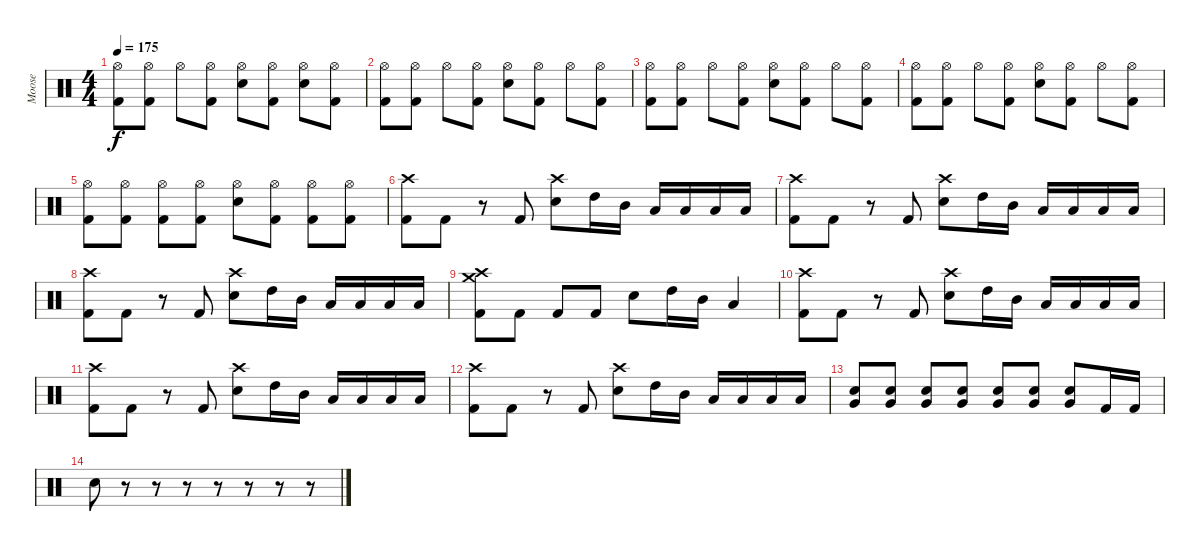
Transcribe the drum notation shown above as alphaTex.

\track ("Moose" "Moose") {instrument percussion}
\staff {score}
\articulation defaults
\ts (4 4)
\tempo 175
\clef neutral
\ks c
("Hi-Hat (open)" "Kick (hit) 2").8{dy f} ("Hi-Hat (open)" "Kick (hit) 2").8 "Hi-Hat (open)".8 ("Hi-Hat (open)" "Kick (hit) 2").8 ("Hi-Hat (open)" "Electric Snare (hit)").8 ("Hi-Hat (open)" "Kick (hit) 2").8 ("Hi-Hat (open)" "Electric Snare (hit)").8 ("Hi-Hat (open)" "Kick (hit) 2").8 |
("Hi-Hat (open)" "Kick (hit) 2").8 ("Hi-Hat (open)" "Kick (hit) 2").8 "Hi-Hat (open)".8 ("Hi-Hat (open)" "Kick (hit) 2").8 ("Hi-Hat (open)" "Electric Snare (hit)").8 ("Hi-Hat (open)" "Kick (hit) 2").8 "Hi-Hat (open)".8 ("Hi-Hat (open)" "Kick (hit) 2").8 |
("Hi-Hat (open)" "Kick (hit) 2").8 ("Hi-Hat (open)" "Kick (hit) 2").8 "Hi-Hat (open)".8 ("Hi-Hat (open)" "Kick (hit) 2").8 ("Hi-Hat (open)" "Electric Snare (hit)").8 ("Hi-Hat (open)" "Kick (hit) 2").8 "Hi-Hat (open)".8 ("Hi-Hat (open)" "Kick (hit) 2").8 |
("Hi-Hat (open)" "Kick (hit) 2").8 ("Hi-Hat (open)" "Kick (hit) 2").8 "Hi-Hat (open)".8 ("Hi-Hat (open)" "Kick (hit) 2").8 ("Hi-Hat (open)" "Electric Snare (hit)").8 ("Hi-Hat (open)" "Kick (hit) 2").8 "Hi-Hat (open)".8 ("Hi-Hat (open)" "Kick (hit) 2").8 |
("Hi-Hat (open)" "Kick (hit) 2").8 ("Hi-Hat (open)" "Kick (hit) 2").8 ("Hi-Hat (open)" "Kick (hit) 2").8 ("Hi-Hat (open)" "Kick (hit) 2").8 ("Hi-Hat (open)" "Electric Snare (hit)").8 ("Hi-Hat (open)" "Kick (hit) 2").8 ("Hi-Hat (open)" "Kick (hit) 2").8 ("Hi-Hat (open)" "Kick (hit) 2").8 |
("Crash high (hit)" "Kick (hit) 2").8 "Kick (hit) 2".8 r.8 "Kick (hit) 2".8 ("Crash high (hit)" "Electric Snare (hit)").8 "High Tom (hit)".16 "Mid Tom (hit)".16 "Low Tom (hit)".16 "Low Tom (hit)".16 "Low Tom (hit)".16 "Low Tom (hit)".16 |
("Crash high (hit)" "Kick (hit) 2").8 "Kick (hit) 2".8 r.8 "Kick (hit) 2".8 ("Crash high (hit)" "Electric Snare (hit)").8 "High Tom (hit)".16 "Mid Tom (hit)".16 "Low Tom (hit)".16 "Low Tom (hit)".16 "Low Tom (hit)".16 "Low Tom (hit)".16 |
("Crash high (hit)" "Kick (hit) 2").8 "Kick (hit) 2".8 r.8 "Kick (hit) 2".8 ("Crash high (hit)" "Electric Snare (hit)").8 "High Tom (hit)".16 "Mid Tom (hit)".16 "Low Tom (hit)".16 "Low Tom (hit)".16 "Low Tom (hit)".16 "Low Tom (hit)".16 |
("Crash high (hit)" "Crash medium (hit)" "Kick (hit) 2").8 "Kick (hit) 2".8 "Kick (hit) 2".8 "Kick (hit) 2".8 "Electric Snare (hit)".8 "High Tom (hit)".16 "Mid Tom (hit)".16 "Low Tom (hit)".4 |
("Crash high (hit)" "Kick (hit) 2").8 "Kick (hit) 2".8 r.8 "Kick (hit) 2".8 ("Crash high (hit)" "Electric Snare (hit)").8 "High Tom (hit)".16 "Mid Tom (hit)".16 "Low Tom (hit)".16 "Low Tom (hit)".16 "Low Tom (hit)".16 "Low Tom (hit)".16 |
("Crash high (hit)" "Kick (hit) 2").8 "Kick (hit) 2".8 r.8 "Kick (hit) 2".8 ("Crash high (hit)" "Electric Snare (hit)").8 "High Tom (hit)".16 "Mid Tom (hit)".16 "Low Tom (hit)".16 "Low Tom (hit)".16 "Low Tom (hit)".16 "Low Tom (hit)".16 |
("Crash high (hit)" "Kick (hit) 2").8 "Kick (hit) 2".8 r.8 "Kick (hit) 2".8 ("Crash high (hit)" "Electric Snare (hit)").8 "High Tom (hit)".16 "Mid Tom (hit)".16 "Low Tom (hit)".16 "Low Tom (hit)".16 "Low Tom (hit)".16 "Low Tom (hit)".16 |
("Very Low Tom (hit)" "Electric Snare (hit)").8 ("Very Low Tom (hit)" "Electric Snare (hit)").8 ("Very Low Tom (hit)" "Electric Snare (hit)").8 ("Very Low Tom (hit)" "Electric Snare (hit)").8 ("Very Low Tom (hit)" "Electric Snare (hit)").8 ("Very Low Tom (hit)" "Electric Snare (hit)").8 ("Very Low Tom (hit)" "Electric Snare (hit)").8 "Kick (hit) 2".16 "Kick (hit) 2".16 |
"Electric Snare (hit)".8 r.8 r.8 r.8 r.8 r.8 r.8 r.8
